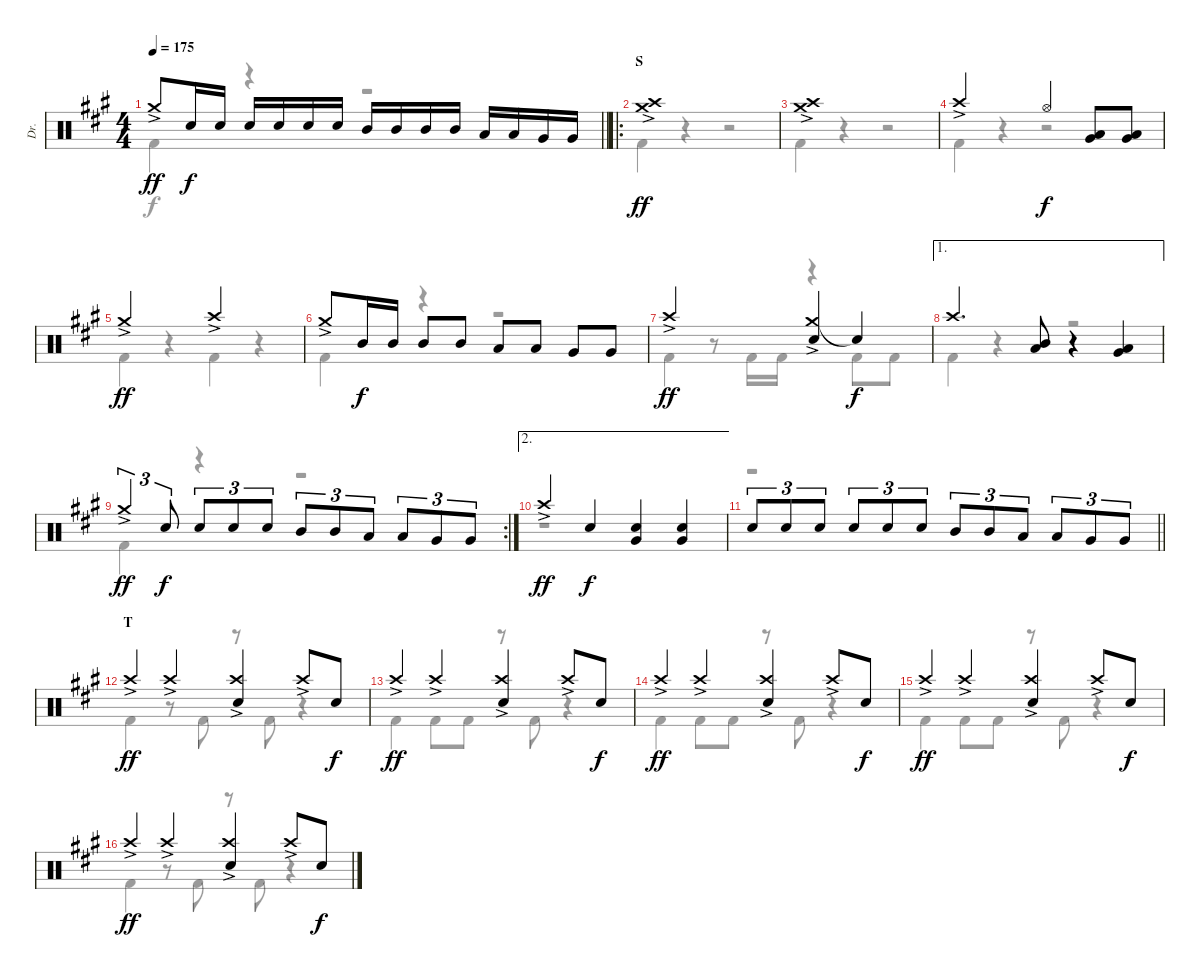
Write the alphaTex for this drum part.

\track ("Dr." "Dr.") {instrument percussion}
\staff {score}
\articulation defaults
\voice
\ts (4 4)
\tempo 175
\clef neutral
\barLineRight lightlight
\ks f#minor "Crash medium (hit)"{ac}.8{dy ff} "Electric Snare (hit)".16{dy f} "Electric Snare (hit)".16 "Electric Snare (hit)".16 "Electric Snare (hit)".16 "Electric Snare (hit)".16 "Electric Snare (hit)".16 "Mid Tom (hit)".16 "Mid Tom (hit)".16 "Mid Tom (hit)".16 "Mid Tom (hit)".16 "Low Tom (hit)".16 "Low Tom (hit)".16 "Very Low Tom (hit)".16 "Very Low Tom (hit)".16
|
\ro
\section ("" "S")
("Crash high (hit)"{ac} "Crash medium (hit)"{ac}).1{dy ff} |
("Crash high (hit)"{ac} "Crash medium (hit)"{ac}).1 |
"Crash high (hit)"{ac}.2 "Hi-Hat (open)".4{dy f} ("Low Tom (hit)" "Very Low Tom (hit)").8 ("Low Tom (hit)" "Very Low Tom (hit)").8 |
"Crash medium (hit)"{ac}.2{dy ff} "Crash high (hit)"{ac}.2 |
"Crash medium (hit)"{ac}.8 "Mid Tom (hit)".16{dy f} "Mid Tom (hit)".16 "Mid Tom (hit)".8 "Mid Tom (hit)".8 "Low Tom (hit)".8 "Low Tom (hit)".8 "Very Low Tom (hit)".8 "Very Low Tom (hit)".8 |
"Crash high (hit)"{ac}.2{dy ff} ("Crash medium (hit)"{ac} "Electric Snare (hit)").4 "Snare (hit)"{t}.4{dy f} |
\ae 1 "Crash high (hit)".4{d}
("Mid Tom (hit)" "Low Tom (hit)").8 r.4 ("Low Tom (hit)" "Very Low Tom (hit)").4 |
\rc 2 "Crash medium (hit)"{ac}.4{tu (3 2) dy ff} "Electric Snare (hit)".8{tu (3 2) dy f} "Electric Snare (hit)".8{tu (3 2)} "Electric Snare (hit)".8{tu (3 2)} "Electric Snare (hit)".8{tu (3 2)} "Mid Tom (hit)".8{tu (3 2)} "Mid Tom (hit)".8{tu (3 2)} "Low Tom (hit)".8{tu (3 2)} "Low Tom (hit)".8{tu (3 2)} "Very Low Tom (hit)".8{tu (3 2)} "Very Low Tom (hit)".8{tu (3 2)}
|
\ae 2 "Crash high (hit)"{ac}.4{dy ff} "Electric Snare (hit)".4{dy f}
("Very Low Tom (hit)" "Electric Snare (hit)").4 ("Very Low Tom (hit)" "Electric Snare (hit)").4 |
\barLineRight lightlight "Electric Snare (hit)".8{tu (3 2)} "Electric Snare (hit)".8{tu (3 2)} "Electric Snare (hit)".8{tu (3 2)} "Electric Snare (hit)".8{tu (3 2)} "Electric Snare (hit)".8{tu (3 2)} "Electric Snare (hit)".8{tu (3 2)} "Mid Tom (hit)".8{tu (3 2)} "Mid Tom (hit)".8{tu (3 2)} "Low Tom (hit)".8{tu (3 2)} "Low Tom (hit)".8{tu (3 2)} "Very Low Tom (hit)".8{tu (3 2)} "Very Low Tom (hit)".8{tu (3 2)}
|
\section ("" "T")
"Crash high (hit)"{ac}.4{dy ff} "Crash high (hit)"{ac}.4 ("Crash high (hit)"{ac} "Electric Snare (hit)").4 "Crash high (hit)"{ac}.8 "Electric Snare (hit)".8{dy f} |
"Crash high (hit)"{ac}.4{dy ff} "Crash high (hit)"{ac}.4 ("Crash high (hit)"{ac} "Electric Snare (hit)").4 "Crash high (hit)"{ac}.8 "Electric Snare (hit)".8{dy f} |
"Crash high (hit)"{ac}.4{dy ff} "Crash high (hit)"{ac}.4 ("Crash high (hit)"{ac} "Electric Snare (hit)").4 "Crash high (hit)"{ac}.8 "Electric Snare (hit)".8{dy f} |
"Crash high (hit)"{ac}.4{dy ff} "Crash high (hit)"{ac}.4 ("Crash high (hit)"{ac} "Electric Snare (hit)").4 "Crash high (hit)"{ac}.8 "Electric Snare (hit)".8{dy f} |
"Crash high (hit)"{ac}.4{dy ff} "Crash high (hit)"{ac}.4 ("Crash high (hit)"{ac} "Electric Snare (hit)").4 "Crash high (hit)"{ac}.8 "Electric Snare (hit)".8{dy f}
\voice
\clef neutral
\ottava regular
\simile none
\barLineRight lightlight
\ks f#minor "Kick (hit) 2".4{dy f}
r.4 r.2 |
"Kick (hit) 2".4 r.4 r.2 |
"Kick (hit) 2".4 r.4 r.2 |
"Kick (hit) 2".4 r.4 r.2 |
"Kick (hit) 2".4 r.4 "Kick (hit) 2".4 r.4 |
"Kick (hit) 2".4 r.4 r.2 |
"Kick (hit) 2".4 r.8 "Kick (hit) 2".16 "Kick (hit) 2".16 r.4 "Kick (hit) 2".8 "Kick (hit) 2".8 |
"Kick (hit) 2".4 r.4 r.2 |
"Kick (hit) 2".4 r.4 r.2 |
r.1 |
\barLineRight lightlight
r.1 |
"Kick (hit) 2".4 r.8 "Kick (hit) 2".8 r.8 "Kick (hit) 2".8 r.4 |
"Kick (hit) 2".4 "Kick (hit) 2".8 "Kick (hit) 2".8 r.8 "Kick (hit) 2".8 r.4 |
"Kick (hit) 2".4 "Kick (hit) 2".8 "Kick (hit) 2".8 r.8 "Kick (hit) 2".8 r.4 |
"Kick (hit) 2".4 "Kick (hit) 2".8 "Kick (hit) 2".8 r.8 "Kick (hit) 2".8 r.4 |
"Kick (hit) 2".4 r.8 "Kick (hit) 2".8 r.8 "Kick (hit) 2".8 r.4
